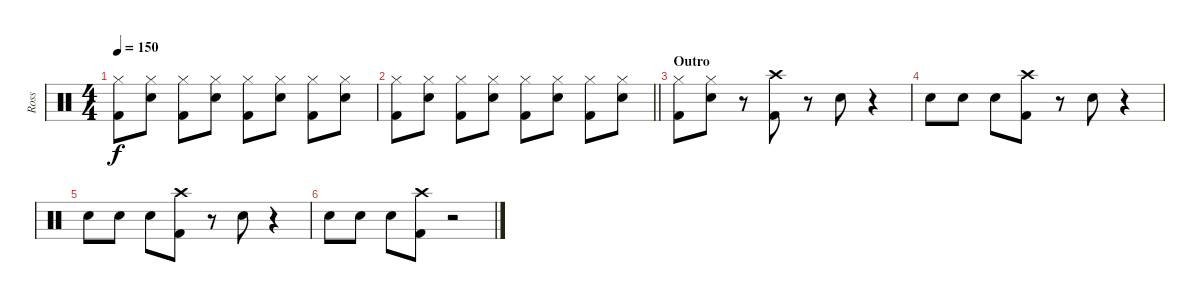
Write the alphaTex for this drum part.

\track ("Ross" "Ross") {instrument percussion}
\staff {score}
\articulation defaults
\ts (4 4)
\tempo 150
\clef neutral
\ks c
("Hi-Hat (closed)" "Kick (hit) 2").8{dy f} ("Hi-Hat (closed)" "Snare (hit) 2").8 ("Hi-Hat (closed)" "Kick (hit) 2").8 ("Hi-Hat (closed)" "Snare (hit) 2").8 ("Hi-Hat (closed)" "Kick (hit) 2").8 ("Hi-Hat (closed)" "Snare (hit) 2").8 ("Hi-Hat (closed)" "Kick (hit) 2").8 ("Hi-Hat (closed)" "Snare (hit) 2").8 |
\barLineRight lightlight
("Hi-Hat (closed)" "Kick (hit) 2").8 ("Hi-Hat (closed)" "Snare (hit) 2").8 ("Hi-Hat (closed)" "Kick (hit) 2").8 ("Hi-Hat (closed)" "Snare (hit) 2").8 ("Hi-Hat (closed)" "Kick (hit) 2").8 ("Hi-Hat (closed)" "Snare (hit) 2").8 ("Hi-Hat (closed)" "Kick (hit) 2").8 ("Hi-Hat (closed)" "Snare (hit) 2").8 |
\section ("" "Outro")
("Hi-Hat (closed)" "Kick (hit) 2").8 ("Hi-Hat (closed)" "Snare (hit) 2").8 r.8 ("Crash high (hit)" "Kick (hit) 2").8 r.8 "Snare (hit) 2".8 r.4 |
"Snare (hit) 2".8 "Snare (hit) 2".8 "Snare (hit) 2".8 ("Crash high (hit)" "Kick (hit) 2").8 r.8 "Snare (hit) 2".8 r.4 |
"Snare (hit) 2".8 "Snare (hit) 2".8 "Snare (hit) 2".8 ("Crash high (hit)" "Kick (hit) 2").8 r.8 "Snare (hit) 2".8 r.4 |
"Snare (hit) 2".8 "Snare (hit) 2".8 "Snare (hit) 2".8 ("Crash high (hit)" "Kick (hit) 2").8 r.2
